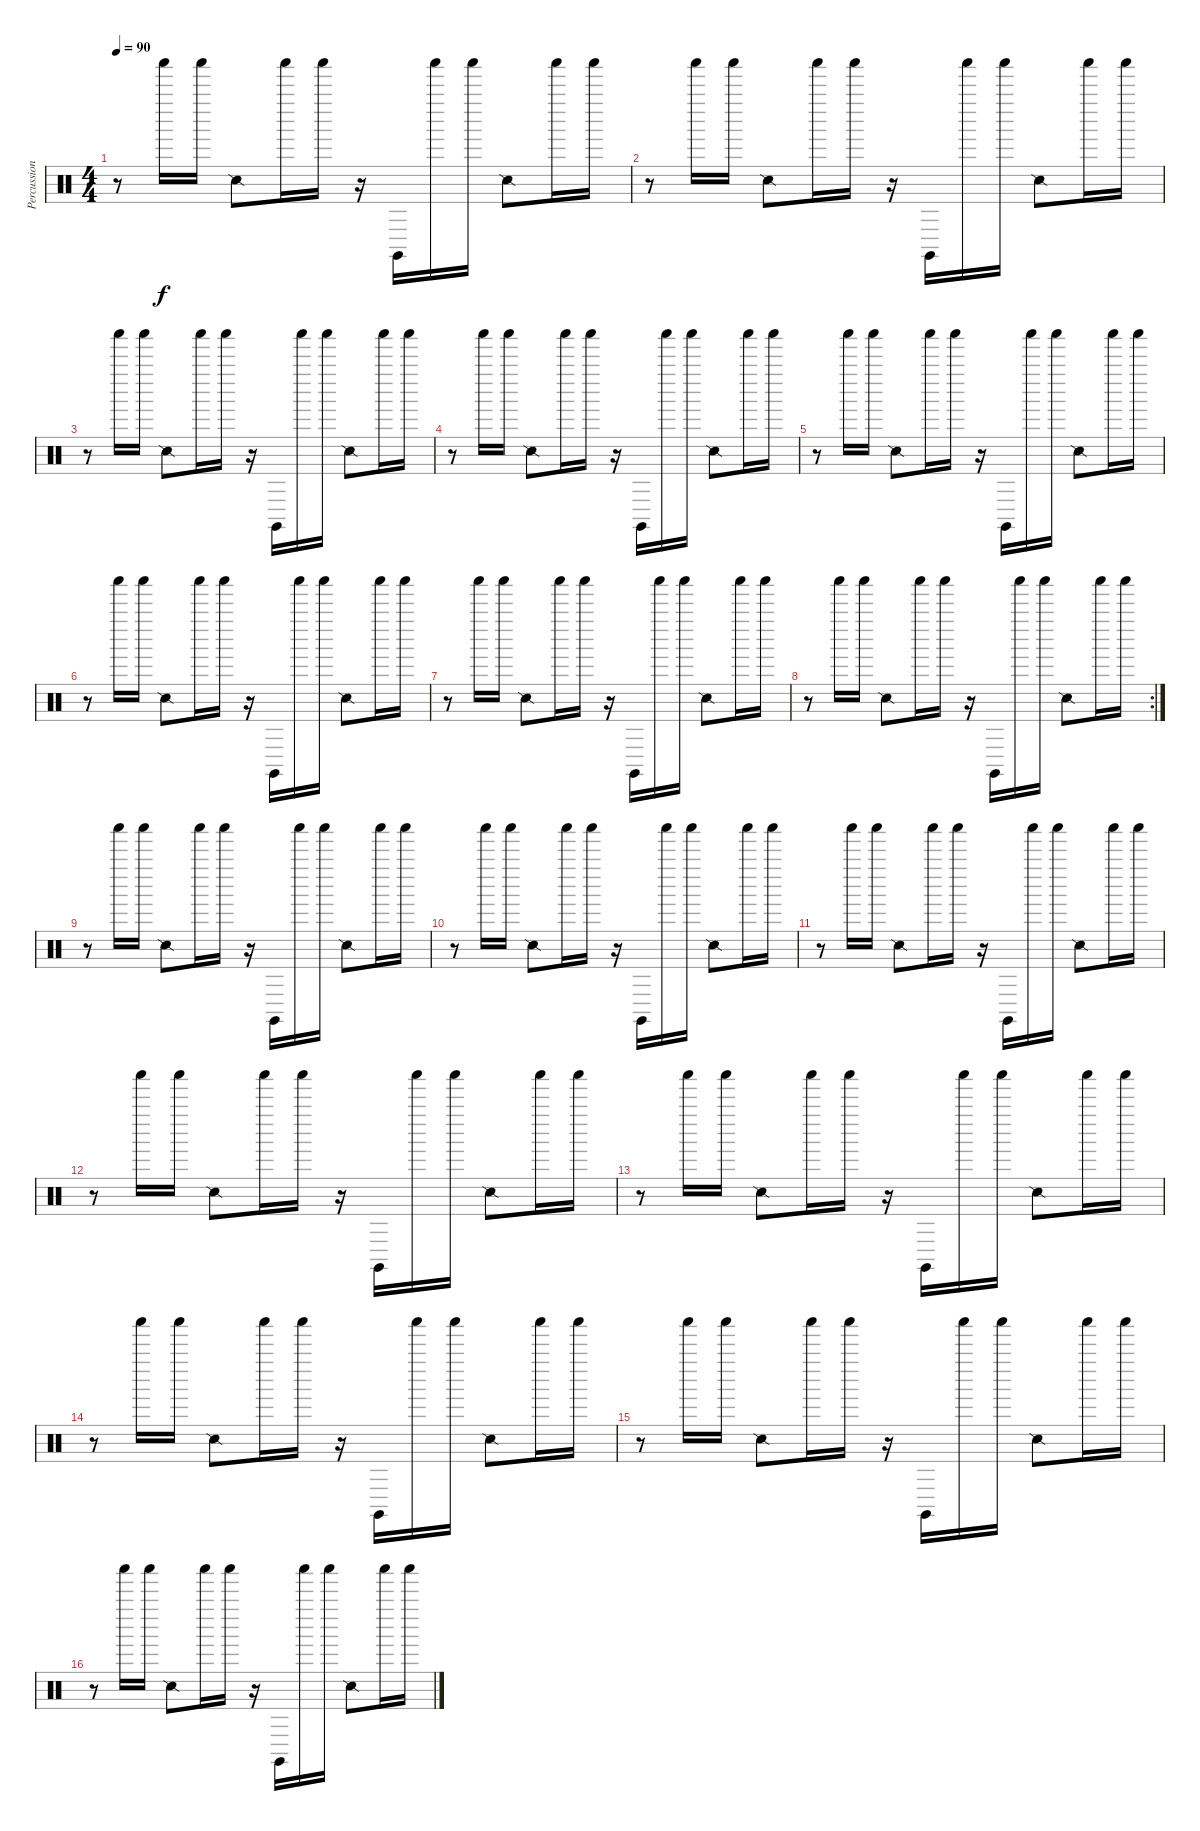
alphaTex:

\track ("Percussion" "Percussion") {instrument percussion}
\staff {score}
\articulation defaults
\ts (4 4)
\tempo 90
\clef neutral
\ks c
r.8{dy f} "Shaker (hit)".16 "Shaker (hit)".16 "Snare (side stick) 2".8 "Shaker (hit)".16 "Shaker (hit)".16 r.16 "Claves (hit)".16 "Shaker (hit)".16 "Shaker (hit)".16 "Snare (side stick) 2".8 "Shaker (hit)".16 "Shaker (hit)".16 |
r.8 "Shaker (hit)".16 "Shaker (hit)".16 "Snare (side stick) 2".8 "Shaker (hit)".16 "Shaker (hit)".16 r.16 "Claves (hit)".16 "Shaker (hit)".16 "Shaker (hit)".16 "Snare (side stick) 2".8 "Shaker (hit)".16 "Shaker (hit)".16 |
r.8 "Shaker (hit)".16 "Shaker (hit)".16 "Snare (side stick) 2".8 "Shaker (hit)".16 "Shaker (hit)".16 r.16 "Claves (hit)".16 "Shaker (hit)".16 "Shaker (hit)".16 "Snare (side stick) 2".8 "Shaker (hit)".16 "Shaker (hit)".16 |
r.8 "Shaker (hit)".16 "Shaker (hit)".16 "Snare (side stick) 2".8 "Shaker (hit)".16 "Shaker (hit)".16 r.16 "Claves (hit)".16 "Shaker (hit)".16 "Shaker (hit)".16 "Snare (side stick) 2".8 "Shaker (hit)".16 "Shaker (hit)".16 |
r.8 "Shaker (hit)".16 "Shaker (hit)".16 "Snare (side stick) 2".8 "Shaker (hit)".16 "Shaker (hit)".16 r.16 "Claves (hit)".16 "Shaker (hit)".16 "Shaker (hit)".16 "Snare (side stick) 2".8 "Shaker (hit)".16 "Shaker (hit)".16 |
r.8 "Shaker (hit)".16 "Shaker (hit)".16 "Snare (side stick) 2".8 "Shaker (hit)".16 "Shaker (hit)".16 r.16 "Claves (hit)".16 "Shaker (hit)".16 "Shaker (hit)".16 "Snare (side stick) 2".8 "Shaker (hit)".16 "Shaker (hit)".16 |
r.8 "Shaker (hit)".16 "Shaker (hit)".16 "Snare (side stick) 2".8 "Shaker (hit)".16 "Shaker (hit)".16 r.16 "Claves (hit)".16 "Shaker (hit)".16 "Shaker (hit)".16 "Snare (side stick) 2".8 "Shaker (hit)".16 "Shaker (hit)".16 |
\rc 2
r.8 "Shaker (hit)".16 "Shaker (hit)".16 "Snare (side stick) 2".8 "Shaker (hit)".16 "Shaker (hit)".16 r.16 "Claves (hit)".16 "Shaker (hit)".16 "Shaker (hit)".16 "Snare (side stick) 2".8 "Shaker (hit)".16 "Shaker (hit)".16 |
r.8 "Shaker (hit)".16 "Shaker (hit)".16 "Snare (side stick) 2".8 "Shaker (hit)".16 "Shaker (hit)".16 r.16 "Claves (hit)".16 "Shaker (hit)".16 "Shaker (hit)".16 "Snare (side stick) 2".8 "Shaker (hit)".16 "Shaker (hit)".16 |
r.8 "Shaker (hit)".16 "Shaker (hit)".16 "Snare (side stick) 2".8 "Shaker (hit)".16 "Shaker (hit)".16 r.16 "Claves (hit)".16 "Shaker (hit)".16 "Shaker (hit)".16 "Snare (side stick) 2".8 "Shaker (hit)".16 "Shaker (hit)".16 |
r.8 "Shaker (hit)".16 "Shaker (hit)".16 "Snare (side stick) 2".8 "Shaker (hit)".16 "Shaker (hit)".16 r.16 "Claves (hit)".16 "Shaker (hit)".16 "Shaker (hit)".16 "Snare (side stick) 2".8 "Shaker (hit)".16 "Shaker (hit)".16 |
r.8 "Shaker (hit)".16 "Shaker (hit)".16 "Snare (side stick) 2".8 "Shaker (hit)".16 "Shaker (hit)".16 r.16 "Claves (hit)".16 "Shaker (hit)".16 "Shaker (hit)".16 "Snare (side stick) 2".8 "Shaker (hit)".16 "Shaker (hit)".16 |
r.8 "Shaker (hit)".16 "Shaker (hit)".16 "Snare (side stick) 2".8 "Shaker (hit)".16 "Shaker (hit)".16 r.16 "Claves (hit)".16 "Shaker (hit)".16 "Shaker (hit)".16 "Snare (side stick) 2".8 "Shaker (hit)".16 "Shaker (hit)".16 |
r.8 "Shaker (hit)".16 "Shaker (hit)".16 "Snare (side stick) 2".8 "Shaker (hit)".16 "Shaker (hit)".16 r.16 "Claves (hit)".16 "Shaker (hit)".16 "Shaker (hit)".16 "Snare (side stick) 2".8 "Shaker (hit)".16 "Shaker (hit)".16 |
r.8 "Shaker (hit)".16 "Shaker (hit)".16 "Snare (side stick) 2".8 "Shaker (hit)".16 "Shaker (hit)".16 r.16 "Claves (hit)".16 "Shaker (hit)".16 "Shaker (hit)".16 "Snare (side stick) 2".8 "Shaker (hit)".16 "Shaker (hit)".16 |
r.8 "Shaker (hit)".16 "Shaker (hit)".16 "Snare (side stick) 2".8 "Shaker (hit)".16 "Shaker (hit)".16 r.16 "Claves (hit)".16 "Shaker (hit)".16 "Shaker (hit)".16 "Snare (side stick) 2".8 "Shaker (hit)".16 "Shaker (hit)".16
